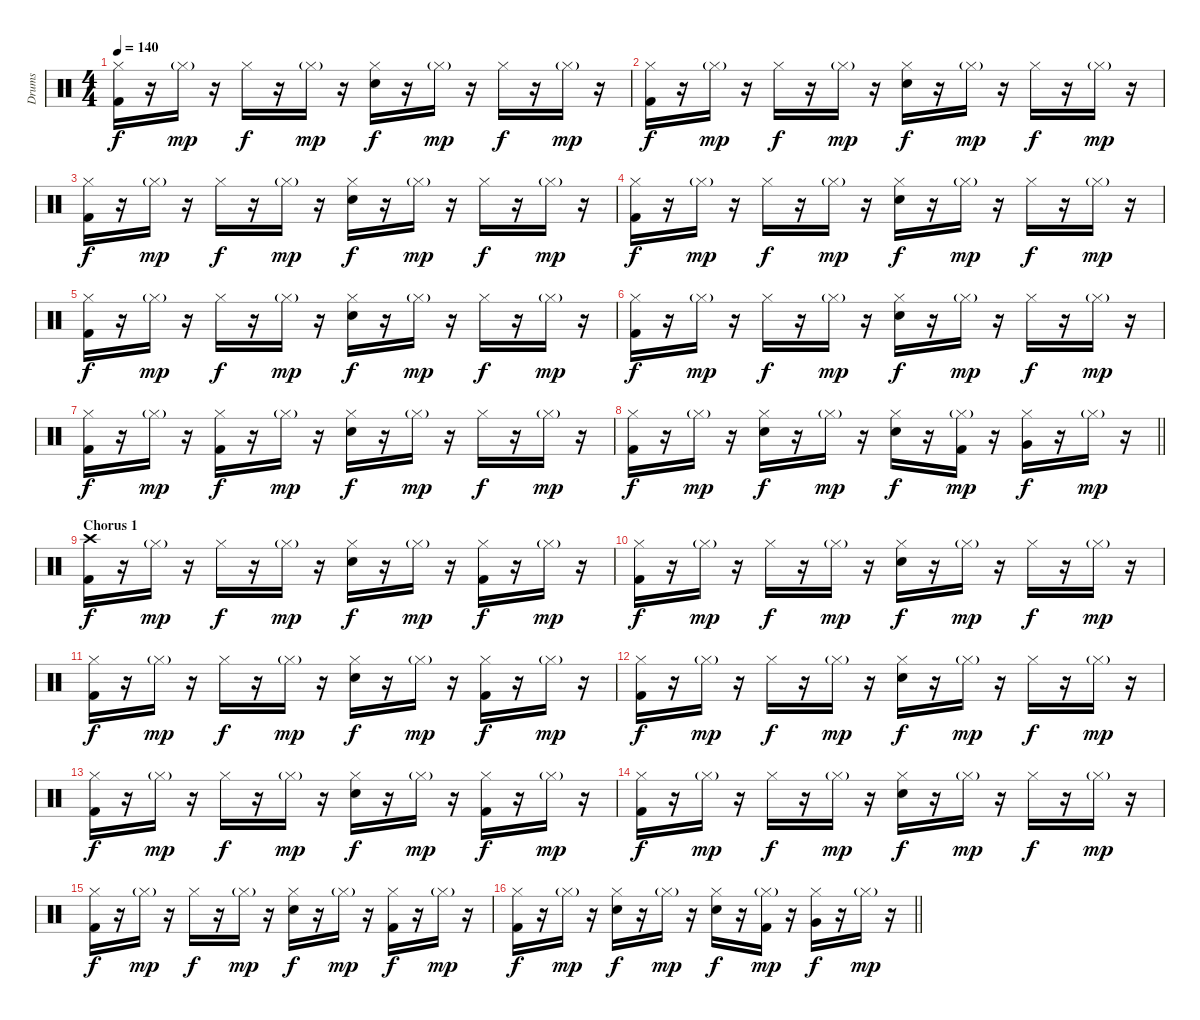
\track ("Drums" "Drums") {instrument percussion}
\staff {score}
\articulation defaults
\ts (4 4)
\tempo 140
\clef neutral
\ks c
("Hi-Hat (closed)" "Kick (hit) 2").16{dy f} r.16 "Hi-Hat (closed)"{g}.16{dy mp} r.16 "Hi-Hat (closed)".16{dy f} r.16 "Hi-Hat (closed)"{g}.16{dy mp} r.16 ("Hi-Hat (closed)" "Snare (hit) 2").16{dy f} r.16 "Hi-Hat (closed)"{g}.16{dy mp} r.16 "Hi-Hat (closed)".16{dy f} r.16 "Hi-Hat (closed)"{g}.16{dy mp} r.16 |
("Hi-Hat (closed)" "Kick (hit) 2").16{dy f} r.16 "Hi-Hat (closed)"{g}.16{dy mp} r.16 "Hi-Hat (closed)".16{dy f} r.16 "Hi-Hat (closed)"{g}.16{dy mp} r.16 ("Hi-Hat (closed)" "Snare (hit) 2").16{dy f} r.16 "Hi-Hat (closed)"{g}.16{dy mp} r.16 "Hi-Hat (closed)".16{dy f} r.16 "Hi-Hat (closed)"{g}.16{dy mp} r.16 |
("Hi-Hat (closed)" "Kick (hit) 2").16{dy f} r.16 "Hi-Hat (closed)"{g}.16{dy mp} r.16 "Hi-Hat (closed)".16{dy f} r.16 "Hi-Hat (closed)"{g}.16{dy mp} r.16 ("Hi-Hat (closed)" "Snare (hit) 2").16{dy f} r.16 "Hi-Hat (closed)"{g}.16{dy mp} r.16 "Hi-Hat (closed)".16{dy f} r.16 "Hi-Hat (closed)"{g}.16{dy mp} r.16 |
("Hi-Hat (closed)" "Kick (hit) 2").16{dy f} r.16 "Hi-Hat (closed)"{g}.16{dy mp} r.16 "Hi-Hat (closed)".16{dy f} r.16 "Hi-Hat (closed)"{g}.16{dy mp} r.16 ("Hi-Hat (closed)" "Snare (hit) 2").16{dy f} r.16 "Hi-Hat (closed)"{g}.16{dy mp} r.16 "Hi-Hat (closed)".16{dy f} r.16 "Hi-Hat (closed)"{g}.16{dy mp} r.16 |
("Hi-Hat (closed)" "Kick (hit) 2").16{dy f} r.16 "Hi-Hat (closed)"{g}.16{dy mp} r.16 "Hi-Hat (closed)".16{dy f} r.16 "Hi-Hat (closed)"{g}.16{dy mp} r.16 ("Hi-Hat (closed)" "Snare (hit) 2").16{dy f} r.16 "Hi-Hat (closed)"{g}.16{dy mp} r.16 "Hi-Hat (closed)".16{dy f} r.16 "Hi-Hat (closed)"{g}.16{dy mp} r.16 |
("Hi-Hat (closed)" "Kick (hit) 2").16{dy f} r.16 "Hi-Hat (closed)"{g}.16{dy mp} r.16 "Hi-Hat (closed)".16{dy f} r.16 "Hi-Hat (closed)"{g}.16{dy mp} r.16 ("Hi-Hat (closed)" "Snare (hit) 2").16{dy f} r.16 "Hi-Hat (closed)"{g}.16{dy mp} r.16 "Hi-Hat (closed)".16{dy f} r.16 "Hi-Hat (closed)"{g}.16{dy mp} r.16 |
("Hi-Hat (closed)" "Kick (hit) 2").16{dy f} r.16 "Hi-Hat (closed)"{g}.16{dy mp} r.16 ("Hi-Hat (closed)" "Kick (hit) 2").16{dy f} r.16 "Hi-Hat (closed)"{g}.16{dy mp} r.16 ("Hi-Hat (closed)" "Snare (hit) 2").16{dy f} r.16 "Hi-Hat (closed)"{g}.16{dy mp} r.16 "Hi-Hat (closed)".16{dy f} r.16 "Hi-Hat (closed)"{g}.16{dy mp} r.16 |
\barLineRight lightlight
("Hi-Hat (closed)" "Kick (hit) 2").16{dy f} r.16 "Hi-Hat (closed)"{g}.16{dy mp} r.16 ("Hi-Hat (closed)" "Snare (hit) 2").16{dy f} r.16 "Hi-Hat (closed)"{g}.16{dy mp} r.16 ("Hi-Hat (closed)" "Snare (hit) 2").16{dy f} r.16 ("Hi-Hat (closed)"{g} "Kick (hit) 2").16{dy mp} r.16 ("Hi-Hat (closed)" "Very Low Tom (hit)").16{dy f} r.16 "Hi-Hat (closed)"{g}.16{dy mp} r.16 |
\section ("" "Chorus 1")
("Crash high (hit)" "Kick (hit) 2").16{dy f} r.16 "Hi-Hat (closed)"{g}.16{dy mp} r.16 "Hi-Hat (closed)".16{dy f} r.16 "Hi-Hat (closed)"{g}.16{dy mp} r.16 ("Hi-Hat (closed)" "Snare (hit) 2").16{dy f} r.16 "Hi-Hat (closed)"{g}.16{dy mp} r.16 ("Hi-Hat (closed)" "Kick (hit) 2").16{dy f} r.16 "Hi-Hat (closed)"{g}.16{dy mp} r.16 |
("Hi-Hat (closed)" "Kick (hit) 2").16{dy f} r.16 "Hi-Hat (closed)"{g}.16{dy mp} r.16 "Hi-Hat (closed)".16{dy f} r.16 "Hi-Hat (closed)"{g}.16{dy mp} r.16 ("Hi-Hat (closed)" "Snare (hit) 2").16{dy f} r.16 "Hi-Hat (closed)"{g}.16{dy mp} r.16 "Hi-Hat (closed)".16{dy f} r.16 "Hi-Hat (closed)"{g}.16{dy mp} r.16 |
("Hi-Hat (closed)" "Kick (hit) 2").16{dy f} r.16 "Hi-Hat (closed)"{g}.16{dy mp} r.16 "Hi-Hat (closed)".16{dy f} r.16 "Hi-Hat (closed)"{g}.16{dy mp} r.16 ("Hi-Hat (closed)" "Snare (hit) 2").16{dy f} r.16 "Hi-Hat (closed)"{g}.16{dy mp} r.16 ("Hi-Hat (closed)" "Kick (hit) 2").16{dy f} r.16 "Hi-Hat (closed)"{g}.16{dy mp} r.16 |
("Hi-Hat (closed)" "Kick (hit) 2").16{dy f} r.16 "Hi-Hat (closed)"{g}.16{dy mp} r.16 "Hi-Hat (closed)".16{dy f} r.16 "Hi-Hat (closed)"{g}.16{dy mp} r.16 ("Hi-Hat (closed)" "Snare (hit) 2").16{dy f} r.16 "Hi-Hat (closed)"{g}.16{dy mp} r.16 "Hi-Hat (closed)".16{dy f} r.16 "Hi-Hat (closed)"{g}.16{dy mp} r.16 |
("Hi-Hat (closed)" "Kick (hit) 2").16{dy f} r.16 "Hi-Hat (closed)"{g}.16{dy mp} r.16 "Hi-Hat (closed)".16{dy f} r.16 "Hi-Hat (closed)"{g}.16{dy mp} r.16 ("Hi-Hat (closed)" "Snare (hit) 2").16{dy f} r.16 "Hi-Hat (closed)"{g}.16{dy mp} r.16 ("Hi-Hat (closed)" "Kick (hit) 2").16{dy f} r.16 "Hi-Hat (closed)"{g}.16{dy mp} r.16 |
("Hi-Hat (closed)" "Kick (hit) 2").16{dy f} r.16 "Hi-Hat (closed)"{g}.16{dy mp} r.16 "Hi-Hat (closed)".16{dy f} r.16 "Hi-Hat (closed)"{g}.16{dy mp} r.16 ("Hi-Hat (closed)" "Snare (hit) 2").16{dy f} r.16 "Hi-Hat (closed)"{g}.16{dy mp} r.16 "Hi-Hat (closed)".16{dy f} r.16 "Hi-Hat (closed)"{g}.16{dy mp} r.16 |
("Hi-Hat (closed)" "Kick (hit) 2").16{dy f} r.16 "Hi-Hat (closed)"{g}.16{dy mp} r.16 "Hi-Hat (closed)".16{dy f} r.16 "Hi-Hat (closed)"{g}.16{dy mp} r.16 ("Hi-Hat (closed)" "Snare (hit) 2").16{dy f} r.16 "Hi-Hat (closed)"{g}.16{dy mp} r.16 ("Hi-Hat (closed)" "Kick (hit) 2").16{dy f} r.16 "Hi-Hat (closed)"{g}.16{dy mp} r.16 |
\barLineRight lightlight
("Hi-Hat (closed)" "Kick (hit) 2").16{dy f} r.16 "Hi-Hat (closed)"{g}.16{dy mp} r.16 ("Hi-Hat (closed)" "Snare (hit) 2").16{dy f} r.16 "Hi-Hat (closed)"{g}.16{dy mp} r.16 ("Hi-Hat (closed)" "Snare (hit) 2").16{dy f} r.16 ("Hi-Hat (closed)"{g} "Kick (hit) 2").16{dy mp} r.16 ("Hi-Hat (closed)" "Very Low Tom (hit)").16{dy f} r.16 "Hi-Hat (closed)"{g}.16{dy mp} r.16
